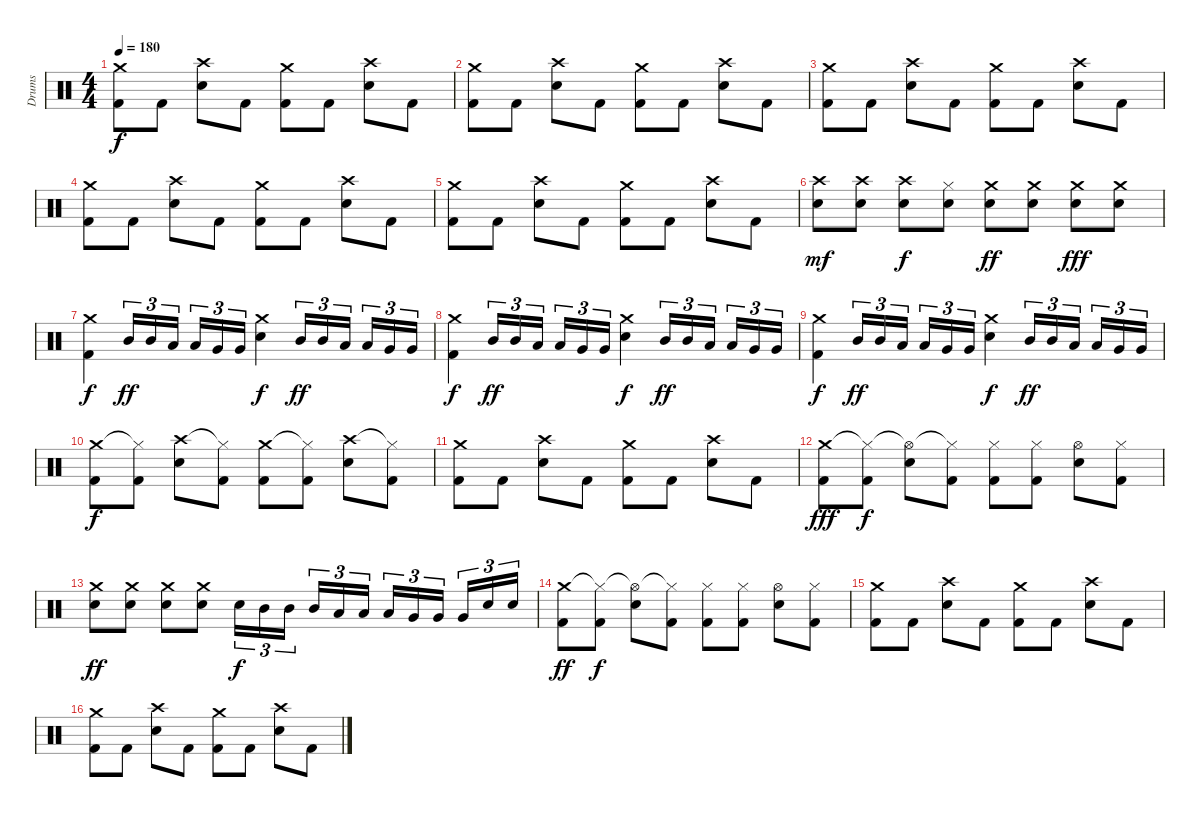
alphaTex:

\track ("Drums" "Drums") {instrument percussion}
\staff {score}
\articulation defaults
\ts (4 4)
\tempo 180
\clef neutral
\ks c
("Crash medium (hit)" "Kick (hit) 2").8{dy f} "Kick (hit) 2".8 ("Crash high (hit)" "Snare (hit) 2").8 "Kick (hit) 2".8 ("Crash medium (hit)" "Kick (hit) 2").8 "Kick (hit) 2".8 ("Crash high (hit)" "Snare (hit) 2").8 "Kick (hit) 2".8 |
("Crash medium (hit)" "Kick (hit) 2").8 "Kick (hit) 2".8 ("Crash high (hit)" "Snare (hit) 2").8 "Kick (hit) 2".8 ("Crash medium (hit)" "Kick (hit) 2").8 "Kick (hit) 2".8 ("Crash high (hit)" "Snare (hit) 2").8 "Kick (hit) 2".8 |
("Crash medium (hit)" "Kick (hit) 2").8 "Kick (hit) 2".8 ("Crash high (hit)" "Snare (hit) 2").8 "Kick (hit) 2".8 ("Crash medium (hit)" "Kick (hit) 2").8 "Kick (hit) 2".8 ("Crash high (hit)" "Snare (hit) 2").8 "Kick (hit) 2".8 |
("Crash medium (hit)" "Kick (hit) 2").8 "Kick (hit) 2".8 ("Crash high (hit)" "Snare (hit) 2").8 "Kick (hit) 2".8 ("Crash medium (hit)" "Kick (hit) 2").8 "Kick (hit) 2".8 ("Crash high (hit)" "Snare (hit) 2").8 "Kick (hit) 2".8 |
("Crash medium (hit)" "Kick (hit) 2").8 "Kick (hit) 2".8 ("Crash high (hit)" "Snare (hit) 2").8 "Kick (hit) 2".8 ("Crash medium (hit)" "Kick (hit) 2").8 "Kick (hit) 2".8 ("Crash high (hit)" "Snare (hit) 2").8 "Kick (hit) 2".8 |
("Crash high (hit)" "Snare (hit) 2").8{dy mf} ("Crash high (hit)" "Snare (hit) 2").8 ("Crash high (hit)" "Snare (hit) 2").8{dy f} ("Hi-Hat (closed)" "Snare (hit) 2").8 ("Crash medium (hit)" "Snare (hit) 2").8{dy ff} ("Crash medium (hit)" "Snare (hit) 2").8 ("Crash medium (hit)" "Snare (hit) 2").8{dy fff} ("Crash medium (hit)" "Snare (hit) 2").8 |
("Crash medium (hit)" "Kick (hit) 2").4{dy f} "Mid Tom (hit)".16{tu (3 2) dy ff} "Mid Tom (hit)".16{tu (3 2)} "Low Tom (hit)".16{tu (3 2) beam splitsecondary} "Low Tom (hit)".16{tu (3 2)} "Very Low Tom (hit)".16{tu (3 2)} "Very Low Tom (hit)".16{tu (3 2)} ("Crash medium (hit)" "Snare (hit) 2").4{dy f} "Mid Tom (hit)".16{tu (3 2) dy ff} "Mid Tom (hit)".16{tu (3 2)} "Low Tom (hit)".16{tu (3 2) beam splitsecondary} "Low Tom (hit)".16{tu (3 2)} "Very Low Tom (hit)".16{tu (3 2)} "Very Low Tom (hit)".16{tu (3 2)} |
("Crash medium (hit)" "Kick (hit) 2").4{dy f} "Mid Tom (hit)".16{tu (3 2) dy ff} "Mid Tom (hit)".16{tu (3 2)} "Low Tom (hit)".16{tu (3 2) beam splitsecondary} "Low Tom (hit)".16{tu (3 2)} "Very Low Tom (hit)".16{tu (3 2)} "Very Low Tom (hit)".16{tu (3 2)} ("Crash medium (hit)" "Snare (hit) 2").4{dy f} "Mid Tom (hit)".16{tu (3 2) dy ff} "Mid Tom (hit)".16{tu (3 2)} "Low Tom (hit)".16{tu (3 2) beam splitsecondary} "Low Tom (hit)".16{tu (3 2)} "Very Low Tom (hit)".16{tu (3 2)} "Very Low Tom (hit)".16{tu (3 2)} |
("Crash medium (hit)" "Kick (hit) 2").4{dy f} "Mid Tom (hit)".16{tu (3 2) dy ff} "Mid Tom (hit)".16{tu (3 2)} "Low Tom (hit)".16{tu (3 2) beam splitsecondary} "Low Tom (hit)".16{tu (3 2)} "Very Low Tom (hit)".16{tu (3 2)} "Very Low Tom (hit)".16{tu (3 2)} ("Crash medium (hit)" "Snare (hit) 2").4{dy f} "Mid Tom (hit)".16{tu (3 2) dy ff} "Mid Tom (hit)".16{tu (3 2)} "Low Tom (hit)".16{tu (3 2) beam splitsecondary} "Low Tom (hit)".16{tu (3 2)} "Very Low Tom (hit)".16{tu (3 2)} "Very Low Tom (hit)".16{tu (3 2)} |
("Crash medium (hit)" "Kick (hit) 2").8{dy f} ("Hi-Hat (closed)"{t} "Kick (hit) 2").8 ("Crash high (hit)" "Snare (hit) 2").8 ("Hi-Hat (closed)"{t} "Kick (hit) 2").8 ("Crash medium (hit)" "Kick (hit) 2").8 ("Hi-Hat (closed)"{t} "Kick (hit) 2").8 ("Crash high (hit)" "Snare (hit) 2").8 ("Hi-Hat (closed)"{t} "Kick (hit) 2").8 |
("Crash medium (hit)" "Kick (hit) 2").8 "Kick (hit) 2".8 ("Crash high (hit)" "Snare (hit) 2").8 "Kick (hit) 2".8 ("Crash medium (hit)" "Kick (hit) 2").8 "Kick (hit) 2".8 ("Crash high (hit)" "Snare (hit) 2").8 "Kick (hit) 2".8 |
("Crash medium (hit)" "Kick (hit) 2").8{dy fff} ("Hi-Hat (closed)"{t} "Kick (hit) 2").8{dy f} ("Hi-Hat (open)"{t} "Snare (hit) 2").8 ("Hi-Hat (closed)"{t} "Kick (hit) 2").8 ("Hi-Hat (closed)" "Kick (hit) 2").8 ("Hi-Hat (closed)" "Kick (hit) 2").8 ("Hi-Hat (open)" "Snare (hit) 2").8 ("Hi-Hat (closed)" "Kick (hit) 2").8 |
("Crash medium (hit)" "Snare (hit) 2").8{dy ff} ("Crash medium (hit)" "Snare (hit) 2").8 ("Crash medium (hit)" "Snare (hit) 2").8 ("Crash medium (hit)" "Snare (hit) 2").8 "Snare (hit) 2".16{tu (3 2) dy f} "Mid Tom (hit)".16{tu (3 2)} "Mid Tom (hit)".16{tu (3 2) beam splitsecondary} "Mid Tom (hit)".16{tu (3 2)} "Low Tom (hit)".16{tu (3 2)} "Low Tom (hit)".16{tu (3 2)} "Low Tom (hit)".16{tu (3 2)} "Very Low Tom (hit)".16{tu (3 2)} "Very Low Tom (hit)".16{tu (3 2) beam splitsecondary} "Very Low Tom (hit)".16{tu (3 2)} "Snare (hit) 2".16{tu (3 2)} "Snare (hit) 2".16{tu (3 2)} |
("Crash medium (hit)" "Kick (hit) 2").8{dy ff} ("Hi-Hat (closed)"{t} "Kick (hit) 2").8{dy f} ("Hi-Hat (open)"{t} "Snare (hit) 2").8 ("Hi-Hat (closed)"{t} "Kick (hit) 2").8 ("Hi-Hat (closed)" "Kick (hit) 2").8 ("Hi-Hat (closed)" "Kick (hit) 2").8 ("Hi-Hat (open)" "Snare (hit) 2").8 ("Hi-Hat (closed)" "Kick (hit) 2").8 |
("Crash medium (hit)" "Kick (hit) 2").8 "Kick (hit) 2".8 ("Crash high (hit)" "Snare (hit) 2").8 "Kick (hit) 2".8 ("Crash medium (hit)" "Kick (hit) 2").8 "Kick (hit) 2".8 ("Crash high (hit)" "Snare (hit) 2").8 "Kick (hit) 2".8 |
("Crash medium (hit)" "Kick (hit) 2").8 "Kick (hit) 2".8 ("Crash high (hit)" "Snare (hit) 2").8 "Kick (hit) 2".8 ("Crash medium (hit)" "Kick (hit) 2").8 "Kick (hit) 2".8 ("Crash high (hit)" "Snare (hit) 2").8 "Kick (hit) 2".8
